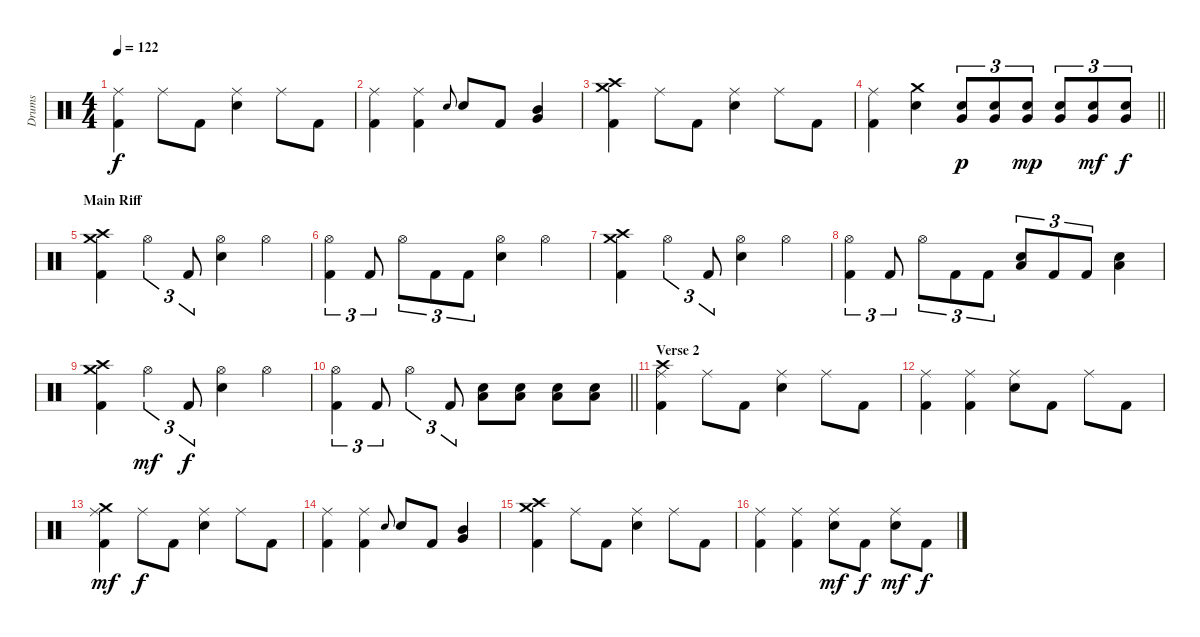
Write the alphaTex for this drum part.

\track ("Drums" "Drums") {instrument percussion}
\staff {score}
\articulation defaults
\ts (4 4)
\tempo 122
\clef neutral
\ks c
("Ride (middle)" "Kick (hit) 2").4{dy f} "Ride (middle)".8 "Kick (hit) 2".8 ("Ride (middle)" "Electric Snare (hit)").4 "Ride (middle)".8 "Kick (hit) 2".8 |
("Ride (middle)" "Kick (hit) 2").4 ("Ride (middle)" "Kick (hit) 2").4 "Electric Snare (hit)".8{gr onbeat} "Electric Snare (hit)".8 "Kick (hit) 2".8 ("Mid Tom (hit)" "Very Low Tom (hit)").4{bu 30} |
("Crash high (hit)" "Crash medium (hit)" "Kick (hit) 2").4 "Ride (middle)".8 "Kick (hit) 2".8 ("Ride (middle)" "Electric Snare (hit)").4 "Ride (middle)".8 "Kick (hit) 2".8 |
\barLineRight lightlight
("Ride (middle)" "Kick (hit) 2").4 ("Crash medium (hit)" "Electric Snare (hit)").4 ("Very Low Tom (hit)" "Electric Snare (hit)").8{tu (3 2) dy p} ("Very Low Tom (hit)" "Electric Snare (hit)").8{tu (3 2)} ("Very Low Tom (hit)" "Electric Snare (hit)").8{tu (3 2) dy mp} ("Very Low Tom (hit)" "Electric Snare (hit)").8{tu (3 2)} ("Very Low Tom (hit)" "Electric Snare (hit)").8{tu (3 2) dy mf} ("Very Low Tom (hit)" "Electric Snare (hit)").8{tu (3 2) dy f} |
\section ("" "Main Riff")
("Crash high (hit)" "Crash medium (hit)" "Kick (hit) 2").4 "Hi-Hat (open)".4{tu (3 2)} "Kick (hit) 2".8{tu (3 2)} ("Hi-Hat (open)" "Electric Snare (hit)").4 "Hi-Hat (open)".4 |
("Hi-Hat (open)" "Kick (hit) 2").4{tu (3 2)} "Kick (hit) 2".8{tu (3 2)} "Hi-Hat (open)".8{tu (3 2)} "Kick (hit) 2".8{tu (3 2)} "Kick (hit) 2".8{tu (3 2)} ("Hi-Hat (open)" "Electric Snare (hit)").4 "Hi-Hat (open)".4 |
("Crash high (hit)" "Crash medium (hit)" "Kick (hit) 2").4 "Hi-Hat (open)".4{tu (3 2)} "Kick (hit) 2".8{tu (3 2)} ("Hi-Hat (open)" "Electric Snare (hit)").4 "Hi-Hat (open)".4 |
("Hi-Hat (open)" "Kick (hit) 2").4{tu (3 2)} "Kick (hit) 2".8{tu (3 2)} "Hi-Hat (open)".8{tu (3 2)} "Kick (hit) 2".8{tu (3 2)} "Kick (hit) 2".8{tu (3 2)} ("Low Floor Tom (hit)" "Electric Snare (hit)").8{tu (3 2)} "Kick (hit) 2".8{tu (3 2)} "Kick (hit) 2".8{tu (3 2)} ("Low Floor Tom (hit)" "Electric Snare (hit)").4 |
("Crash high (hit)" "Crash medium (hit)" "Kick (hit) 2").4 "Hi-Hat (open)".4{tu (3 2) dy mf} "Kick (hit) 2".8{tu (3 2) dy f} ("Hi-Hat (open)" "Electric Snare (hit)").4 "Hi-Hat (open)".4 |
\barLineRight lightlight
("Hi-Hat (open)" "Kick (hit) 2").4{tu (3 2)} "Kick (hit) 2".8{tu (3 2)} "Hi-Hat (open)".4{tu (3 2)} "Kick (hit) 2".8{tu (3 2)} ("Low Floor Tom (hit)" "Electric Snare (hit)").8 ("Low Floor Tom (hit)" "Electric Snare (hit)").8 ("Low Floor Tom (hit)" "Electric Snare (hit)").8 ("Low Floor Tom (hit)" "Electric Snare (hit)").8 |
\section ("" "Verse 2")
("Crash high (hit)" "Ride (middle)" "Kick (hit) 2").4 "Ride (middle)".8 "Kick (hit) 2".8 ("Ride (middle)" "Electric Snare (hit)").4 "Ride (middle)".8 "Kick (hit) 2".8 |
("Ride (middle)" "Kick (hit) 2").4 ("Ride (middle)" "Kick (hit) 2").4 ("Ride (middle)" "Electric Snare (hit)").8 "Kick (hit) 2".8 "Ride (middle)".8 "Kick (hit) 2".8 |
("Crash medium (hit)" "Ride (middle)" "Kick (hit) 2").4{dy mf} "Ride (middle)".8{dy f} "Kick (hit) 2".8 ("Ride (middle)" "Electric Snare (hit)").4 "Ride (middle)".8 "Kick (hit) 2".8 |
("Ride (middle)" "Kick (hit) 2").4 ("Ride (middle)" "Kick (hit) 2").4 "Electric Snare (hit)".8{gr onbeat} "Electric Snare (hit)".8 "Kick (hit) 2".8 ("Mid Tom (hit)" "Very Low Tom (hit)").4{bu 30} |
("Crash high (hit)" "Crash medium (hit)" "Kick (hit) 2").4 "Ride (middle)".8 "Kick (hit) 2".8 ("Ride (middle)" "Electric Snare (hit)").4 "Ride (middle)".8 "Kick (hit) 2".8 |
("Ride (middle)" "Kick (hit) 2").4 ("Ride (middle)" "Kick (hit) 2").4 ("Ride (middle)" "Electric Snare (hit)").8{dy mf} "Kick (hit) 2".8{dy f} ("Ride (middle)" "Electric Snare (hit)").8{dy mf} "Kick (hit) 2".8{dy f}
